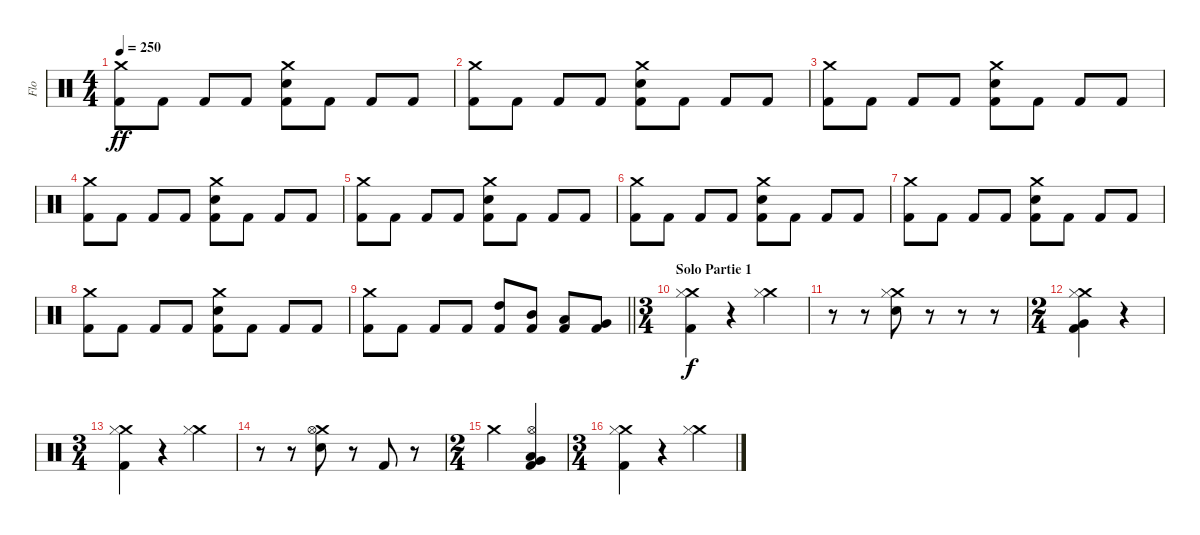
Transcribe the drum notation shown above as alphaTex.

\track ("Flo" "Flo") {instrument percussion}
\staff {score}
\articulation defaults
\ts (4 4)
\tempo 250
\clef neutral
\ks c
("Crash medium (hit)" "Kick (hit) 2").8{dy ff} "Kick (hit) 2".8 "Kick (hit) 2".8 "Kick (hit) 2".8 ("Crash medium (hit)" "Electric Snare (hit)" "Kick (hit) 2").8 "Kick (hit) 2".8 "Kick (hit) 2".8 "Kick (hit) 2".8 |
("Crash medium (hit)" "Kick (hit) 2").8 "Kick (hit) 2".8 "Kick (hit) 2".8 "Kick (hit) 2".8 ("Crash medium (hit)" "Electric Snare (hit)" "Kick (hit) 2").8 "Kick (hit) 2".8 "Kick (hit) 2".8 "Kick (hit) 2".8 |
("Crash medium (hit)" "Kick (hit) 2").8 "Kick (hit) 2".8 "Kick (hit) 2".8 "Kick (hit) 2".8 ("Crash medium (hit)" "Electric Snare (hit)" "Kick (hit) 2").8 "Kick (hit) 2".8 "Kick (hit) 2".8 "Kick (hit) 2".8 |
("Crash medium (hit)" "Kick (hit) 2").8 "Kick (hit) 2".8 "Kick (hit) 2".8 "Kick (hit) 2".8 ("Crash medium (hit)" "Electric Snare (hit)" "Kick (hit) 2").8 "Kick (hit) 2".8 "Kick (hit) 2".8 "Kick (hit) 2".8 |
("Crash medium (hit)" "Kick (hit) 2").8 "Kick (hit) 2".8 "Kick (hit) 2".8 "Kick (hit) 2".8 ("Crash medium (hit)" "Electric Snare (hit)" "Kick (hit) 2").8 "Kick (hit) 2".8 "Kick (hit) 2".8 "Kick (hit) 2".8 |
("Crash medium (hit)" "Kick (hit) 2").8 "Kick (hit) 2".8 "Kick (hit) 2".8 "Kick (hit) 2".8 ("Crash medium (hit)" "Electric Snare (hit)" "Kick (hit) 2").8 "Kick (hit) 2".8 "Kick (hit) 2".8 "Kick (hit) 2".8 |
("Crash medium (hit)" "Kick (hit) 2").8 "Kick (hit) 2".8 "Kick (hit) 2".8 "Kick (hit) 2".8 ("Crash medium (hit)" "Electric Snare (hit)" "Kick (hit) 2").8 "Kick (hit) 2".8 "Kick (hit) 2".8 "Kick (hit) 2".8 |
("Crash medium (hit)" "Kick (hit) 2").8 "Kick (hit) 2".8 "Kick (hit) 2".8 "Kick (hit) 2".8 ("Crash medium (hit)" "Electric Snare (hit)" "Kick (hit) 2").8 "Kick (hit) 2".8 "Kick (hit) 2".8 "Kick (hit) 2".8 |
\barLineRight lightlight
("Crash medium (hit)" "Kick (hit) 2").8 "Kick (hit) 2".8 "Kick (hit) 2".8 "Kick (hit) 2".8 ("High Tom (hit)" "Kick (hit) 2").8 ("Mid Tom (hit)" "Kick (hit) 2").8 ("Low Tom (hit)" "Kick (hit) 2").8 ("Very Low Tom (hit)" "Kick (hit) 2").8 |
\ts (3 4)
\section ("" "Solo Partie 1")
("Crash medium (hit)" "Hi-Hat (closed)" "Kick (hit) 2").4{dy f} r.4 ("Crash medium (hit)" "Hi-Hat (closed)").4 |
r.8 r.8 ("Crash medium (hit)" "Hi-Hat (closed)" "Electric Snare (hit)").8 r.8 r.8 r.8 |
\ts (2 4)
("Crash medium (hit)" "Hi-Hat (closed)" "Kick (hit) 2" "Very Low Tom (hit)").4 r.4 |
\ts (3 4)
("Crash medium (hit)" "Hi-Hat (closed)" "Kick (hit) 2").4 r.4 ("Crash medium (hit)" "Hi-Hat (closed)").4 |
r.8 r.8 ("Crash medium (hit)" "Hi-Hat (open)" "Electric Snare (hit)").8 r.8 "Kick (hit) 2".8 r.8 |
\ts (2 4)
"Crash medium (hit)".4 ("Very Low Tom (hit)" "Low Floor Tom (hit)" "Hi-Hat (open)" "Kick (hit) 2").4 |
\ts (3 4)
("Crash medium (hit)" "Hi-Hat (closed)" "Kick (hit) 2").4 r.4 ("Crash medium (hit)" "Hi-Hat (closed)").4
